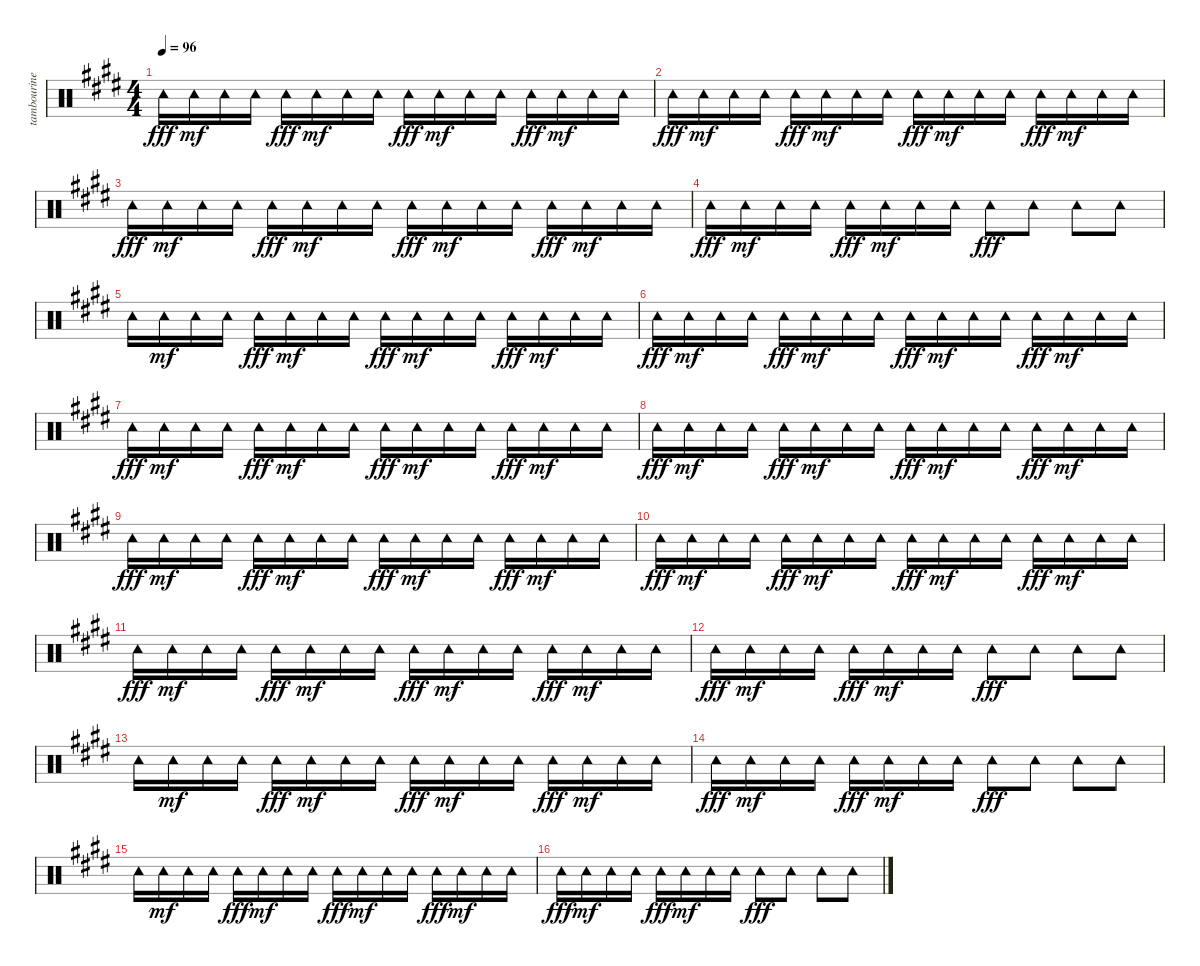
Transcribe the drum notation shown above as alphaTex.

\track ("tambourine" "tambourine") {instrument percussion}
\staff {score}
\articulation defaults
\ts (4 4)
\tempo 96
\clef neutral
\ks e "Tambourine (hit)".16{dy fff} "Tambourine (hit)".16{dy mf} "Tambourine (hit)".16 "Tambourine (hit)".16 "Tambourine (hit)".16{dy fff} "Tambourine (hit)".16{dy mf} "Tambourine (hit)".16 "Tambourine (hit)".16 "Tambourine (hit)".16{dy fff} "Tambourine (hit)".16{dy mf} "Tambourine (hit)".16 "Tambourine (hit)".16 "Tambourine (hit)".16{dy fff} "Tambourine (hit)".16{dy mf} "Tambourine (hit)".16 "Tambourine (hit)".16
|
"Tambourine (hit)".16{dy fff} "Tambourine (hit)".16{dy mf} "Tambourine (hit)".16 "Tambourine (hit)".16 "Tambourine (hit)".16{dy fff} "Tambourine (hit)".16{dy mf} "Tambourine (hit)".16 "Tambourine (hit)".16 "Tambourine (hit)".16{dy fff} "Tambourine (hit)".16{dy mf} "Tambourine (hit)".16 "Tambourine (hit)".16 "Tambourine (hit)".16{dy fff} "Tambourine (hit)".16{dy mf} "Tambourine (hit)".16 "Tambourine (hit)".16 |
"Tambourine (hit)".16{dy fff} "Tambourine (hit)".16{dy mf} "Tambourine (hit)".16 "Tambourine (hit)".16 "Tambourine (hit)".16{dy fff} "Tambourine (hit)".16{dy mf} "Tambourine (hit)".16 "Tambourine (hit)".16 "Tambourine (hit)".16{dy fff} "Tambourine (hit)".16{dy mf} "Tambourine (hit)".16 "Tambourine (hit)".16 "Tambourine (hit)".16{dy fff} "Tambourine (hit)".16{dy mf} "Tambourine (hit)".16 "Tambourine (hit)".16 |
"Tambourine (hit)".16{dy fff} "Tambourine (hit)".16{dy mf} "Tambourine (hit)".16 "Tambourine (hit)".16 "Tambourine (hit)".16{dy fff} "Tambourine (hit)".16{dy mf} "Tambourine (hit)".16 "Tambourine (hit)".16 "Tambourine (hit)".8{dy fff} "Tambourine (hit)".8 "Tambourine (hit)".8 "Tambourine (hit)".8 |
"Tambourine (hit)".16 "Tambourine (hit)".16{dy mf} "Tambourine (hit)".16 "Tambourine (hit)".16 "Tambourine (hit)".16{dy fff} "Tambourine (hit)".16{dy mf} "Tambourine (hit)".16 "Tambourine (hit)".16 "Tambourine (hit)".16{dy fff} "Tambourine (hit)".16{dy mf} "Tambourine (hit)".16 "Tambourine (hit)".16 "Tambourine (hit)".16{dy fff} "Tambourine (hit)".16{dy mf} "Tambourine (hit)".16 "Tambourine (hit)".16 |
"Tambourine (hit)".16{dy fff} "Tambourine (hit)".16{dy mf} "Tambourine (hit)".16 "Tambourine (hit)".16 "Tambourine (hit)".16{dy fff} "Tambourine (hit)".16{dy mf} "Tambourine (hit)".16 "Tambourine (hit)".16 "Tambourine (hit)".16{dy fff} "Tambourine (hit)".16{dy mf} "Tambourine (hit)".16 "Tambourine (hit)".16 "Tambourine (hit)".16{dy fff} "Tambourine (hit)".16{dy mf} "Tambourine (hit)".16 "Tambourine (hit)".16 |
"Tambourine (hit)".16{dy fff} "Tambourine (hit)".16{dy mf} "Tambourine (hit)".16 "Tambourine (hit)".16 "Tambourine (hit)".16{dy fff} "Tambourine (hit)".16{dy mf} "Tambourine (hit)".16 "Tambourine (hit)".16 "Tambourine (hit)".16{dy fff} "Tambourine (hit)".16{dy mf} "Tambourine (hit)".16 "Tambourine (hit)".16 "Tambourine (hit)".16{dy fff} "Tambourine (hit)".16{dy mf} "Tambourine (hit)".16 "Tambourine (hit)".16 |
"Tambourine (hit)".16{dy fff} "Tambourine (hit)".16{dy mf} "Tambourine (hit)".16 "Tambourine (hit)".16 "Tambourine (hit)".16{dy fff} "Tambourine (hit)".16{dy mf} "Tambourine (hit)".16 "Tambourine (hit)".16 "Tambourine (hit)".16{dy fff} "Tambourine (hit)".16{dy mf} "Tambourine (hit)".16 "Tambourine (hit)".16 "Tambourine (hit)".16{dy fff} "Tambourine (hit)".16{dy mf} "Tambourine (hit)".16 "Tambourine (hit)".16 |
"Tambourine (hit)".16{dy fff} "Tambourine (hit)".16{dy mf} "Tambourine (hit)".16 "Tambourine (hit)".16 "Tambourine (hit)".16{dy fff} "Tambourine (hit)".16{dy mf} "Tambourine (hit)".16 "Tambourine (hit)".16 "Tambourine (hit)".16{dy fff} "Tambourine (hit)".16{dy mf} "Tambourine (hit)".16 "Tambourine (hit)".16 "Tambourine (hit)".16{dy fff} "Tambourine (hit)".16{dy mf} "Tambourine (hit)".16 "Tambourine (hit)".16 |
"Tambourine (hit)".16{dy fff} "Tambourine (hit)".16{dy mf} "Tambourine (hit)".16 "Tambourine (hit)".16 "Tambourine (hit)".16{dy fff} "Tambourine (hit)".16{dy mf} "Tambourine (hit)".16 "Tambourine (hit)".16 "Tambourine (hit)".16{dy fff} "Tambourine (hit)".16{dy mf} "Tambourine (hit)".16 "Tambourine (hit)".16 "Tambourine (hit)".16{dy fff} "Tambourine (hit)".16{dy mf} "Tambourine (hit)".16 "Tambourine (hit)".16 |
"Tambourine (hit)".16{dy fff} "Tambourine (hit)".16{dy mf} "Tambourine (hit)".16 "Tambourine (hit)".16 "Tambourine (hit)".16{dy fff} "Tambourine (hit)".16{dy mf} "Tambourine (hit)".16 "Tambourine (hit)".16 "Tambourine (hit)".16{dy fff} "Tambourine (hit)".16{dy mf} "Tambourine (hit)".16 "Tambourine (hit)".16 "Tambourine (hit)".16{dy fff} "Tambourine (hit)".16{dy mf} "Tambourine (hit)".16 "Tambourine (hit)".16 |
"Tambourine (hit)".16{dy fff} "Tambourine (hit)".16{dy mf} "Tambourine (hit)".16 "Tambourine (hit)".16 "Tambourine (hit)".16{dy fff} "Tambourine (hit)".16{dy mf} "Tambourine (hit)".16 "Tambourine (hit)".16 "Tambourine (hit)".8{dy fff} "Tambourine (hit)".8 "Tambourine (hit)".8 "Tambourine (hit)".8 |
"Tambourine (hit)".16 "Tambourine (hit)".16{dy mf} "Tambourine (hit)".16 "Tambourine (hit)".16 "Tambourine (hit)".16{dy fff} "Tambourine (hit)".16{dy mf} "Tambourine (hit)".16 "Tambourine (hit)".16 "Tambourine (hit)".16{dy fff} "Tambourine (hit)".16{dy mf} "Tambourine (hit)".16 "Tambourine (hit)".16 "Tambourine (hit)".16{dy fff} "Tambourine (hit)".16{dy mf} "Tambourine (hit)".16 "Tambourine (hit)".16 |
"Tambourine (hit)".16{dy fff} "Tambourine (hit)".16{dy mf} "Tambourine (hit)".16 "Tambourine (hit)".16 "Tambourine (hit)".16{dy fff} "Tambourine (hit)".16{dy mf} "Tambourine (hit)".16 "Tambourine (hit)".16 "Tambourine (hit)".8{dy fff} "Tambourine (hit)".8 "Tambourine (hit)".8 "Tambourine (hit)".8 |
"Tambourine (hit)".16 "Tambourine (hit)".16{dy mf} "Tambourine (hit)".16 "Tambourine (hit)".16 "Tambourine (hit)".16{dy fff} "Tambourine (hit)".16{dy mf} "Tambourine (hit)".16 "Tambourine (hit)".16 "Tambourine (hit)".16{dy fff} "Tambourine (hit)".16{dy mf} "Tambourine (hit)".16 "Tambourine (hit)".16 "Tambourine (hit)".16{dy fff} "Tambourine (hit)".16{dy mf} "Tambourine (hit)".16 "Tambourine (hit)".16 |
"Tambourine (hit)".16{dy fff} "Tambourine (hit)".16{dy mf} "Tambourine (hit)".16 "Tambourine (hit)".16 "Tambourine (hit)".16{dy fff} "Tambourine (hit)".16{dy mf} "Tambourine (hit)".16 "Tambourine (hit)".16 "Tambourine (hit)".8{dy fff} "Tambourine (hit)".8 "Tambourine (hit)".8 "Tambourine (hit)".8
